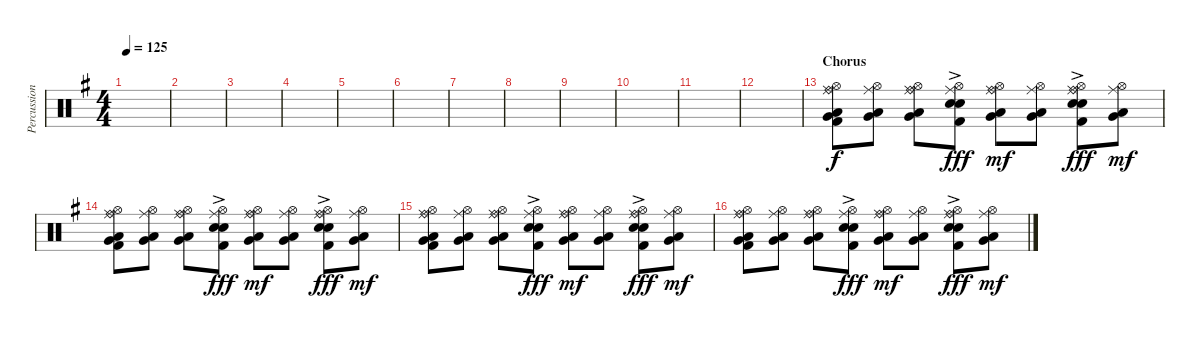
\track ("Percussion" "Percussion") {instrument percussion}
\staff {score}
\articulation defaults
\ts (4 4)
\tempo 125
\clef neutral
\ks g
|
|
|
|
|
|
|
|
|
|
|
|
\section ("" "Chorus")
("Ride (bell)" "Hi-Hat (open)" "Ride (middle)" "Low Tom (hit)" "Very Low Tom (hit)" "Kick (hit) 2").8 ("Hi-Hat (open)" "Ride (middle)" "Low Tom (hit)" "Very Low Tom (hit)").8 ("Ride (bell)" "Hi-Hat (open)" "Ride (middle)" "Low Tom (hit)" "Very Low Tom (hit)").8 ("Hi-Hat (open)" "Ride (middle)" "Electric Snare (hit)"{ac} "Snare (hit) 2"{ac} "Kick (hit) 2").8{dy fff} ("Ride (bell)" "Hi-Hat (open)" "Ride (middle)" "Low Tom (hit)" "Very Low Tom (hit)").8{dy mf} ("Hi-Hat (open)" "Ride (middle)" "Low Tom (hit)" "Very Low Tom (hit)").8 ("Ride (bell)" "Hi-Hat (open)" "Ride (middle)" "Electric Snare (hit)"{ac} "Snare (hit) 2"{ac} "Kick (hit) 2").8{dy fff} ("Hi-Hat (open)" "Ride (middle)" "Low Tom (hit)" "Very Low Tom (hit)").8{dy mf} |
("Ride (bell)" "Hi-Hat (open)" "Ride (middle)" "Low Tom (hit)" "Very Low Tom (hit)" "Kick (hit) 2").8 ("Hi-Hat (open)" "Ride (middle)" "Low Tom (hit)" "Very Low Tom (hit)").8 ("Ride (bell)" "Hi-Hat (open)" "Ride (middle)" "Low Tom (hit)" "Very Low Tom (hit)").8 ("Hi-Hat (open)" "Ride (middle)" "Electric Snare (hit)"{ac} "Snare (hit) 2"{ac} "Kick (hit) 2").8{dy fff} ("Ride (bell)" "Hi-Hat (open)" "Ride (middle)" "Low Tom (hit)" "Very Low Tom (hit)").8{dy mf} ("Hi-Hat (open)" "Ride (middle)" "Low Tom (hit)" "Very Low Tom (hit)").8 ("Ride (bell)" "Hi-Hat (open)" "Ride (middle)" "Electric Snare (hit)"{ac} "Snare (hit) 2"{ac} "Kick (hit) 2").8{dy fff} ("Hi-Hat (open)" "Ride (middle)" "Low Tom (hit)" "Very Low Tom (hit)").8{dy mf} |
("Ride (bell)" "Hi-Hat (open)" "Ride (middle)" "Low Tom (hit)" "Very Low Tom (hit)" "Kick (hit) 2").8 ("Hi-Hat (open)" "Ride (middle)" "Low Tom (hit)" "Very Low Tom (hit)").8 ("Ride (bell)" "Hi-Hat (open)" "Ride (middle)" "Low Tom (hit)" "Very Low Tom (hit)").8 ("Hi-Hat (open)" "Ride (middle)" "Electric Snare (hit)"{ac} "Snare (hit) 2"{ac} "Kick (hit) 2").8{dy fff} ("Ride (bell)" "Hi-Hat (open)" "Ride (middle)" "Low Tom (hit)" "Very Low Tom (hit)").8{dy mf} ("Hi-Hat (open)" "Ride (middle)" "Low Tom (hit)" "Very Low Tom (hit)").8 ("Ride (bell)" "Hi-Hat (open)" "Ride (middle)" "Electric Snare (hit)"{ac} "Snare (hit) 2"{ac} "Kick (hit) 2").8{dy fff} ("Hi-Hat (open)" "Ride (middle)" "Low Tom (hit)" "Very Low Tom (hit)").8{dy mf} |
("Ride (bell)" "Hi-Hat (open)" "Ride (middle)" "Low Tom (hit)" "Very Low Tom (hit)" "Kick (hit) 2").8 ("Hi-Hat (open)" "Ride (middle)" "Low Tom (hit)" "Very Low Tom (hit)").8 ("Ride (bell)" "Hi-Hat (open)" "Ride (middle)" "Low Tom (hit)" "Very Low Tom (hit)").8 ("Hi-Hat (open)" "Ride (middle)" "Electric Snare (hit)"{ac} "Snare (hit) 2"{ac} "Kick (hit) 2").8{dy fff} ("Ride (bell)" "Hi-Hat (open)" "Ride (middle)" "Low Tom (hit)" "Very Low Tom (hit)").8{dy mf} ("Hi-Hat (open)" "Ride (middle)" "Low Tom (hit)" "Very Low Tom (hit)").8 ("Ride (bell)" "Hi-Hat (open)" "Ride (middle)" "Electric Snare (hit)"{ac} "Snare (hit) 2"{ac} "Kick (hit) 2").8{dy fff} ("Hi-Hat (open)" "Ride (middle)" "Low Tom (hit)" "Very Low Tom (hit)").8{dy mf}
